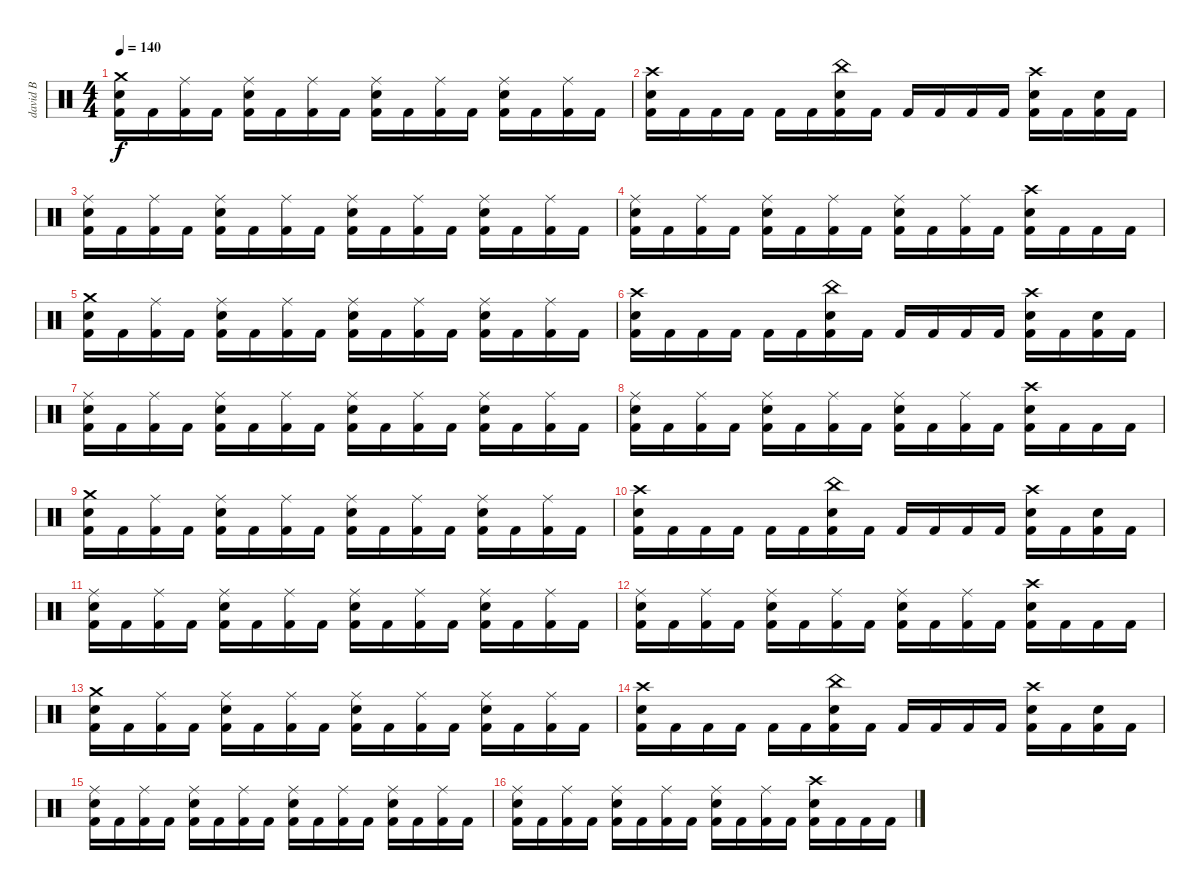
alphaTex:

\track ("david B" "david B") {instrument percussion}
\staff {score}
\articulation defaults
\ts (4 4)
\tempo 140
\clef neutral
\ks c
("Crash medium (hit)" "Electric Snare (hit)" "Kick (hit) 2").16{dy f} "Kick (hit) 2".16 ("Ride (middle)" "Kick (hit) 2").16 "Kick (hit) 2".16 ("Ride (middle)" "Electric Snare (hit)" "Kick (hit) 2").16 "Kick (hit) 2".16 ("Ride (middle)" "Kick (hit) 2").16 "Kick (hit) 2".16 ("Ride (middle)" "Electric Snare (hit)" "Kick (hit) 2").16 "Kick (hit) 2".16 ("Ride (middle)" "Kick (hit) 2").16 "Kick (hit) 2".16 ("Ride (middle)" "Electric Snare (hit)" "Kick (hit) 2").16 "Kick (hit) 2".16 ("Ride (middle)" "Kick (hit) 2").16 "Kick (hit) 2".16 |
("Crash high (hit)" "Electric Snare (hit)" "Kick (hit) 2").16 "Kick (hit) 2".16 "Kick (hit) 2".16 "Kick (hit) 2".16 "Kick (hit) 2".16 "Kick (hit) 2".16 ("China (hit)" "Electric Snare (hit)" "Kick (hit) 2").16 "Kick (hit) 2".16 "Kick (hit) 2".16 "Kick (hit) 2".16 "Kick (hit) 2".16 "Kick (hit) 2".16 ("Crash high (hit)" "Electric Snare (hit)" "Kick (hit) 2").16 "Kick (hit) 2".16 ("Electric Snare (hit)" "Kick (hit) 2").16 "Kick (hit) 2".16 |
("Ride (middle)" "Electric Snare (hit)" "Kick (hit) 2").16 "Kick (hit) 2".16 ("Ride (middle)" "Kick (hit) 2").16 "Kick (hit) 2".16 ("Ride (middle)" "Electric Snare (hit)" "Kick (hit) 2").16 "Kick (hit) 2".16 ("Ride (middle)" "Kick (hit) 2").16 "Kick (hit) 2".16 ("Ride (middle)" "Electric Snare (hit)" "Kick (hit) 2").16 "Kick (hit) 2".16 ("Ride (middle)" "Kick (hit) 2").16 "Kick (hit) 2".16 ("Ride (middle)" "Electric Snare (hit)" "Kick (hit) 2").16 "Kick (hit) 2".16 ("Ride (middle)" "Kick (hit) 2").16 "Kick (hit) 2".16 |
("Ride (middle)" "Electric Snare (hit)" "Kick (hit) 2").16 "Kick (hit) 2".16 ("Ride (middle)" "Kick (hit) 2").16 "Kick (hit) 2".16 ("Ride (middle)" "Electric Snare (hit)" "Kick (hit) 2").16 "Kick (hit) 2".16 ("Ride (middle)" "Kick (hit) 2").16 "Kick (hit) 2".16 ("Ride (middle)" "Electric Snare (hit)" "Kick (hit) 2").16 "Kick (hit) 2".16 ("Ride (middle)" "Kick (hit) 2").16 "Kick (hit) 2".16 ("Crash high (hit)" "Electric Snare (hit)" "Kick (hit) 2").16 "Kick (hit) 2".16 "Kick (hit) 2".16 "Kick (hit) 2".16 |
("Crash medium (hit)" "Electric Snare (hit)" "Kick (hit) 2").16 "Kick (hit) 2".16 ("Ride (middle)" "Kick (hit) 2").16 "Kick (hit) 2".16 ("Ride (middle)" "Electric Snare (hit)" "Kick (hit) 2").16 "Kick (hit) 2".16 ("Ride (middle)" "Kick (hit) 2").16 "Kick (hit) 2".16 ("Ride (middle)" "Electric Snare (hit)" "Kick (hit) 2").16 "Kick (hit) 2".16 ("Ride (middle)" "Kick (hit) 2").16 "Kick (hit) 2".16 ("Ride (middle)" "Electric Snare (hit)" "Kick (hit) 2").16 "Kick (hit) 2".16 ("Ride (middle)" "Kick (hit) 2").16 "Kick (hit) 2".16 |
("Crash high (hit)" "Electric Snare (hit)" "Kick (hit) 2").16 "Kick (hit) 2".16 "Kick (hit) 2".16 "Kick (hit) 2".16 "Kick (hit) 2".16 "Kick (hit) 2".16 ("China (hit)" "Electric Snare (hit)" "Kick (hit) 2").16 "Kick (hit) 2".16 "Kick (hit) 2".16 "Kick (hit) 2".16 "Kick (hit) 2".16 "Kick (hit) 2".16 ("Crash high (hit)" "Electric Snare (hit)" "Kick (hit) 2").16 "Kick (hit) 2".16 ("Electric Snare (hit)" "Kick (hit) 2").16 "Kick (hit) 2".16 |
("Ride (middle)" "Electric Snare (hit)" "Kick (hit) 2").16 "Kick (hit) 2".16 ("Ride (middle)" "Kick (hit) 2").16 "Kick (hit) 2".16 ("Ride (middle)" "Electric Snare (hit)" "Kick (hit) 2").16 "Kick (hit) 2".16 ("Ride (middle)" "Kick (hit) 2").16 "Kick (hit) 2".16 ("Ride (middle)" "Electric Snare (hit)" "Kick (hit) 2").16 "Kick (hit) 2".16 ("Ride (middle)" "Kick (hit) 2").16 "Kick (hit) 2".16 ("Ride (middle)" "Electric Snare (hit)" "Kick (hit) 2").16 "Kick (hit) 2".16 ("Ride (middle)" "Kick (hit) 2").16 "Kick (hit) 2".16 |
("Ride (middle)" "Electric Snare (hit)" "Kick (hit) 2").16 "Kick (hit) 2".16 ("Ride (middle)" "Kick (hit) 2").16 "Kick (hit) 2".16 ("Ride (middle)" "Electric Snare (hit)" "Kick (hit) 2").16 "Kick (hit) 2".16 ("Ride (middle)" "Kick (hit) 2").16 "Kick (hit) 2".16 ("Ride (middle)" "Electric Snare (hit)" "Kick (hit) 2").16 "Kick (hit) 2".16 ("Ride (middle)" "Kick (hit) 2").16 "Kick (hit) 2".16 ("Crash high (hit)" "Electric Snare (hit)" "Kick (hit) 2").16 "Kick (hit) 2".16 "Kick (hit) 2".16 "Kick (hit) 2".16 |
("Crash medium (hit)" "Electric Snare (hit)" "Kick (hit) 2").16 "Kick (hit) 2".16 ("Ride (middle)" "Kick (hit) 2").16 "Kick (hit) 2".16 ("Ride (middle)" "Electric Snare (hit)" "Kick (hit) 2").16 "Kick (hit) 2".16 ("Ride (middle)" "Kick (hit) 2").16 "Kick (hit) 2".16 ("Ride (middle)" "Electric Snare (hit)" "Kick (hit) 2").16 "Kick (hit) 2".16 ("Ride (middle)" "Kick (hit) 2").16 "Kick (hit) 2".16 ("Ride (middle)" "Electric Snare (hit)" "Kick (hit) 2").16 "Kick (hit) 2".16 ("Ride (middle)" "Kick (hit) 2").16 "Kick (hit) 2".16 |
("Crash high (hit)" "Electric Snare (hit)" "Kick (hit) 2").16 "Kick (hit) 2".16 "Kick (hit) 2".16 "Kick (hit) 2".16 "Kick (hit) 2".16 "Kick (hit) 2".16 ("China (hit)" "Electric Snare (hit)" "Kick (hit) 2").16 "Kick (hit) 2".16 "Kick (hit) 2".16 "Kick (hit) 2".16 "Kick (hit) 2".16 "Kick (hit) 2".16 ("Crash high (hit)" "Electric Snare (hit)" "Kick (hit) 2").16 "Kick (hit) 2".16 ("Electric Snare (hit)" "Kick (hit) 2").16 "Kick (hit) 2".16 |
("Ride (middle)" "Electric Snare (hit)" "Kick (hit) 2").16 "Kick (hit) 2".16 ("Ride (middle)" "Kick (hit) 2").16 "Kick (hit) 2".16 ("Ride (middle)" "Electric Snare (hit)" "Kick (hit) 2").16 "Kick (hit) 2".16 ("Ride (middle)" "Kick (hit) 2").16 "Kick (hit) 2".16 ("Ride (middle)" "Electric Snare (hit)" "Kick (hit) 2").16 "Kick (hit) 2".16 ("Ride (middle)" "Kick (hit) 2").16 "Kick (hit) 2".16 ("Ride (middle)" "Electric Snare (hit)" "Kick (hit) 2").16 "Kick (hit) 2".16 ("Ride (middle)" "Kick (hit) 2").16 "Kick (hit) 2".16 |
("Ride (middle)" "Electric Snare (hit)" "Kick (hit) 2").16 "Kick (hit) 2".16 ("Ride (middle)" "Kick (hit) 2").16 "Kick (hit) 2".16 ("Ride (middle)" "Electric Snare (hit)" "Kick (hit) 2").16 "Kick (hit) 2".16 ("Ride (middle)" "Kick (hit) 2").16 "Kick (hit) 2".16 ("Ride (middle)" "Electric Snare (hit)" "Kick (hit) 2").16 "Kick (hit) 2".16 ("Ride (middle)" "Kick (hit) 2").16 "Kick (hit) 2".16 ("Crash high (hit)" "Electric Snare (hit)" "Kick (hit) 2").16 "Kick (hit) 2".16 "Kick (hit) 2".16 "Kick (hit) 2".16 |
("Crash medium (hit)" "Electric Snare (hit)" "Kick (hit) 2").16 "Kick (hit) 2".16 ("Ride (middle)" "Kick (hit) 2").16 "Kick (hit) 2".16 ("Ride (middle)" "Electric Snare (hit)" "Kick (hit) 2").16 "Kick (hit) 2".16 ("Ride (middle)" "Kick (hit) 2").16 "Kick (hit) 2".16 ("Ride (middle)" "Electric Snare (hit)" "Kick (hit) 2").16 "Kick (hit) 2".16 ("Ride (middle)" "Kick (hit) 2").16 "Kick (hit) 2".16 ("Ride (middle)" "Electric Snare (hit)" "Kick (hit) 2").16 "Kick (hit) 2".16 ("Ride (middle)" "Kick (hit) 2").16 "Kick (hit) 2".16 |
("Crash high (hit)" "Electric Snare (hit)" "Kick (hit) 2").16 "Kick (hit) 2".16 "Kick (hit) 2".16 "Kick (hit) 2".16 "Kick (hit) 2".16 "Kick (hit) 2".16 ("China (hit)" "Electric Snare (hit)" "Kick (hit) 2").16 "Kick (hit) 2".16 "Kick (hit) 2".16 "Kick (hit) 2".16 "Kick (hit) 2".16 "Kick (hit) 2".16 ("Crash high (hit)" "Electric Snare (hit)" "Kick (hit) 2").16 "Kick (hit) 2".16 ("Electric Snare (hit)" "Kick (hit) 2").16 "Kick (hit) 2".16 |
("Ride (middle)" "Electric Snare (hit)" "Kick (hit) 2").16 "Kick (hit) 2".16 ("Ride (middle)" "Kick (hit) 2").16 "Kick (hit) 2".16 ("Ride (middle)" "Electric Snare (hit)" "Kick (hit) 2").16 "Kick (hit) 2".16 ("Ride (middle)" "Kick (hit) 2").16 "Kick (hit) 2".16 ("Ride (middle)" "Electric Snare (hit)" "Kick (hit) 2").16 "Kick (hit) 2".16 ("Ride (middle)" "Kick (hit) 2").16 "Kick (hit) 2".16 ("Ride (middle)" "Electric Snare (hit)" "Kick (hit) 2").16 "Kick (hit) 2".16 ("Ride (middle)" "Kick (hit) 2").16 "Kick (hit) 2".16 |
("Ride (middle)" "Electric Snare (hit)" "Kick (hit) 2").16 "Kick (hit) 2".16 ("Ride (middle)" "Kick (hit) 2").16 "Kick (hit) 2".16 ("Ride (middle)" "Electric Snare (hit)" "Kick (hit) 2").16 "Kick (hit) 2".16 ("Ride (middle)" "Kick (hit) 2").16 "Kick (hit) 2".16 ("Ride (middle)" "Electric Snare (hit)" "Kick (hit) 2").16 "Kick (hit) 2".16 ("Ride (middle)" "Kick (hit) 2").16 "Kick (hit) 2".16 ("Crash high (hit)" "Electric Snare (hit)" "Kick (hit) 2").16 "Kick (hit) 2".16 "Kick (hit) 2".16 "Kick (hit) 2".16
